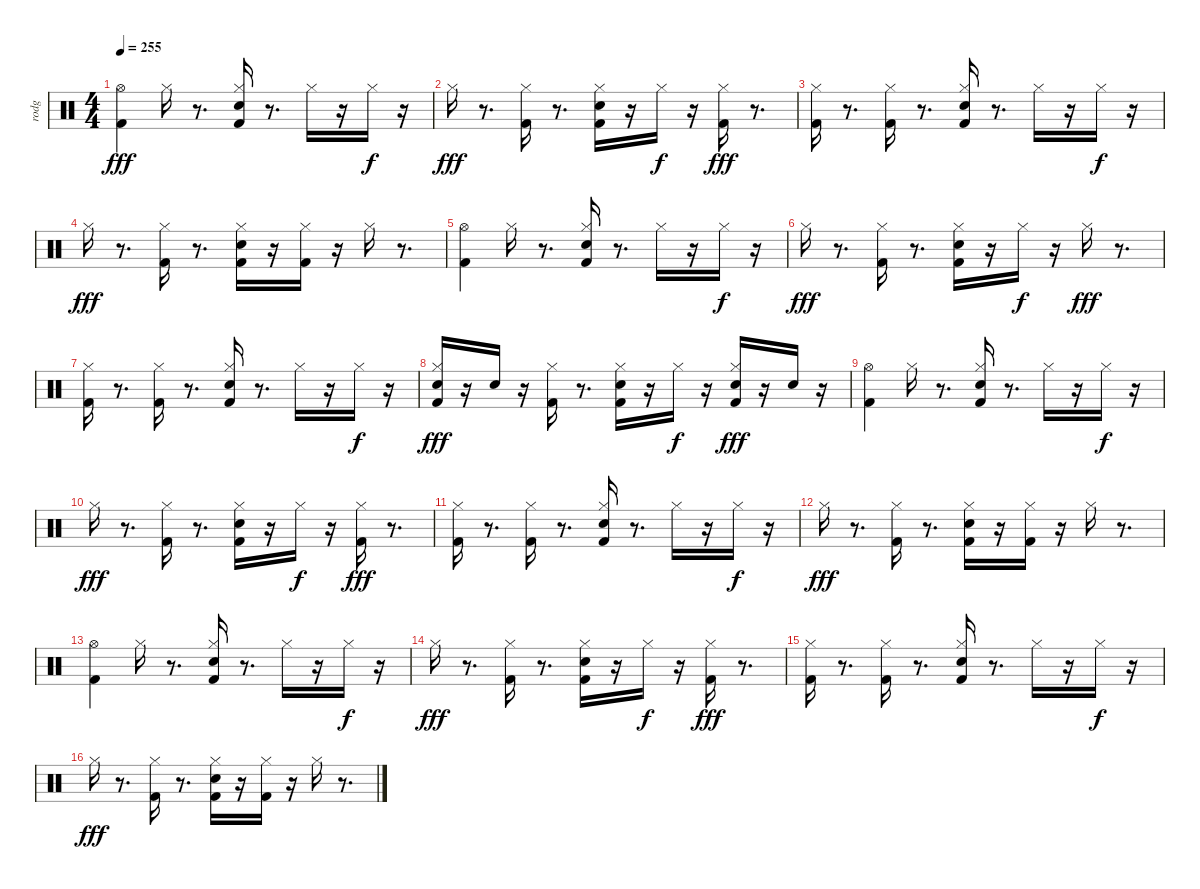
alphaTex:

\track ("rodg" "rodg") {instrument percussion}
\staff {score}
\articulation defaults
\ts (4 4)
\tempo 255
\clef neutral
\ks c
("Hi-Hat (open)" "Kick (hit) 2").4{dy fff} "Hi-Hat (closed)".16 r.8{d} ("Kick (hit) 2" "Electric Snare (hit)" "Hi-Hat (closed)").16 r.8{d} "Hi-Hat (closed)".16 r.16 "Hi-Hat (closed)".16{dy f} r.16 |
"Hi-Hat (closed)".16{dy fff} r.8{d} ("Kick (hit) 2" "Hi-Hat (closed)").16 r.8{d} ("Kick (hit) 2" "Electric Snare (hit)" "Hi-Hat (closed)").16 r.16 "Hi-Hat (closed)".16{dy f} r.16 ("Kick (hit) 2" "Hi-Hat (closed)").16{dy fff} r.8{d} |
("Kick (hit) 2" "Hi-Hat (closed)").16 r.8{d} ("Hi-Hat (closed)" "Kick (hit) 2").16 r.8{d} ("Kick (hit) 2" "Electric Snare (hit)" "Hi-Hat (closed)").16 r.8{d} "Hi-Hat (closed)".16 r.16 "Hi-Hat (closed)".16{dy f} r.16 |
"Hi-Hat (closed)".16{dy fff} r.8{d} ("Kick (hit) 2" "Hi-Hat (closed)").16 r.8{d} ("Kick (hit) 2" "Electric Snare (hit)" "Hi-Hat (closed)").16 r.16 ("Hi-Hat (closed)" "Kick (hit) 2").16 r.16 "Hi-Hat (closed)".16 r.8{d} |
("Kick (hit) 2" "Hi-Hat (open)").4 "Hi-Hat (closed)".16 r.8{d} ("Kick (hit) 2" "Electric Snare (hit)" "Hi-Hat (closed)").16 r.8{d} "Hi-Hat (closed)".16 r.16 "Hi-Hat (closed)".16{dy f} r.16 |
"Hi-Hat (closed)".16{dy fff} r.8{d} ("Kick (hit) 2" "Hi-Hat (closed)").16 r.8{d} ("Kick (hit) 2" "Electric Snare (hit)" "Hi-Hat (closed)").16 r.16 "Hi-Hat (closed)".16{dy f} r.16 "Hi-Hat (closed)".16{dy fff} r.8{d} |
("Kick (hit) 2" "Hi-Hat (closed)").16 r.8{d} ("Hi-Hat (closed)" "Kick (hit) 2").16 r.8{d} ("Kick (hit) 2" "Electric Snare (hit)" "Hi-Hat (closed)").16 r.8{d} "Hi-Hat (closed)".16 r.16 "Hi-Hat (closed)".16{dy f} r.16 |
("Hi-Hat (closed)" "Electric Snare (hit)" "Kick (hit) 2").16{dy fff} r.16 "Electric Snare (hit)".16 r.16 ("Hi-Hat (closed)" "Kick (hit) 2").16 r.8{d} ("Hi-Hat (closed)" "Electric Snare (hit)" "Kick (hit) 2").16 r.16 "Hi-Hat (closed)".16{dy f} r.16 ("Hi-Hat (closed)" "Electric Snare (hit)" "Kick (hit) 2").16{dy fff} r.16 "Electric Snare (hit)".16 r.16 |
("Kick (hit) 2" "Hi-Hat (open)").4 "Hi-Hat (closed)".16 r.8{d} ("Kick (hit) 2" "Electric Snare (hit)" "Hi-Hat (closed)").16 r.8{d} "Hi-Hat (closed)".16 r.16 "Hi-Hat (closed)".16{dy f} r.16 |
"Hi-Hat (closed)".16{dy fff} r.8{d} ("Kick (hit) 2" "Hi-Hat (closed)").16 r.8{d} ("Kick (hit) 2" "Electric Snare (hit)" "Hi-Hat (closed)").16 r.16 "Hi-Hat (closed)".16{dy f} r.16 ("Kick (hit) 2" "Hi-Hat (closed)").16{dy fff} r.8{d} |
("Kick (hit) 2" "Hi-Hat (closed)").16 r.8{d} ("Hi-Hat (closed)" "Kick (hit) 2").16 r.8{d} ("Kick (hit) 2" "Electric Snare (hit)" "Hi-Hat (closed)").16 r.8{d} "Hi-Hat (closed)".16 r.16 "Hi-Hat (closed)".16{dy f} r.16 |
"Hi-Hat (closed)".16{dy fff} r.8{d} ("Kick (hit) 2" "Hi-Hat (closed)").16 r.8{d} ("Kick (hit) 2" "Electric Snare (hit)" "Hi-Hat (closed)").16 r.16 ("Hi-Hat (closed)" "Kick (hit) 2").16 r.16 "Hi-Hat (closed)".16 r.8{d} |
("Hi-Hat (open)" "Kick (hit) 2").4 "Hi-Hat (closed)".16 r.8{d} ("Kick (hit) 2" "Electric Snare (hit)" "Hi-Hat (closed)").16 r.8{d} "Hi-Hat (closed)".16 r.16 "Hi-Hat (closed)".16{dy f} r.16 |
"Hi-Hat (closed)".16{dy fff} r.8{d} ("Kick (hit) 2" "Hi-Hat (closed)").16 r.8{d} ("Kick (hit) 2" "Electric Snare (hit)" "Hi-Hat (closed)").16 r.16 "Hi-Hat (closed)".16{dy f} r.16 ("Kick (hit) 2" "Hi-Hat (closed)").16{dy fff} r.8{d} |
("Kick (hit) 2" "Hi-Hat (closed)").16 r.8{d} ("Hi-Hat (closed)" "Kick (hit) 2").16 r.8{d} ("Kick (hit) 2" "Electric Snare (hit)" "Hi-Hat (closed)").16 r.8{d} "Hi-Hat (closed)".16 r.16 "Hi-Hat (closed)".16{dy f} r.16 |
"Hi-Hat (closed)".16{dy fff} r.8{d} ("Kick (hit) 2" "Hi-Hat (closed)").16 r.8{d} ("Kick (hit) 2" "Electric Snare (hit)" "Hi-Hat (closed)").16 r.16 ("Hi-Hat (closed)" "Kick (hit) 2").16 r.16 "Hi-Hat (closed)".16 r.8{d}
